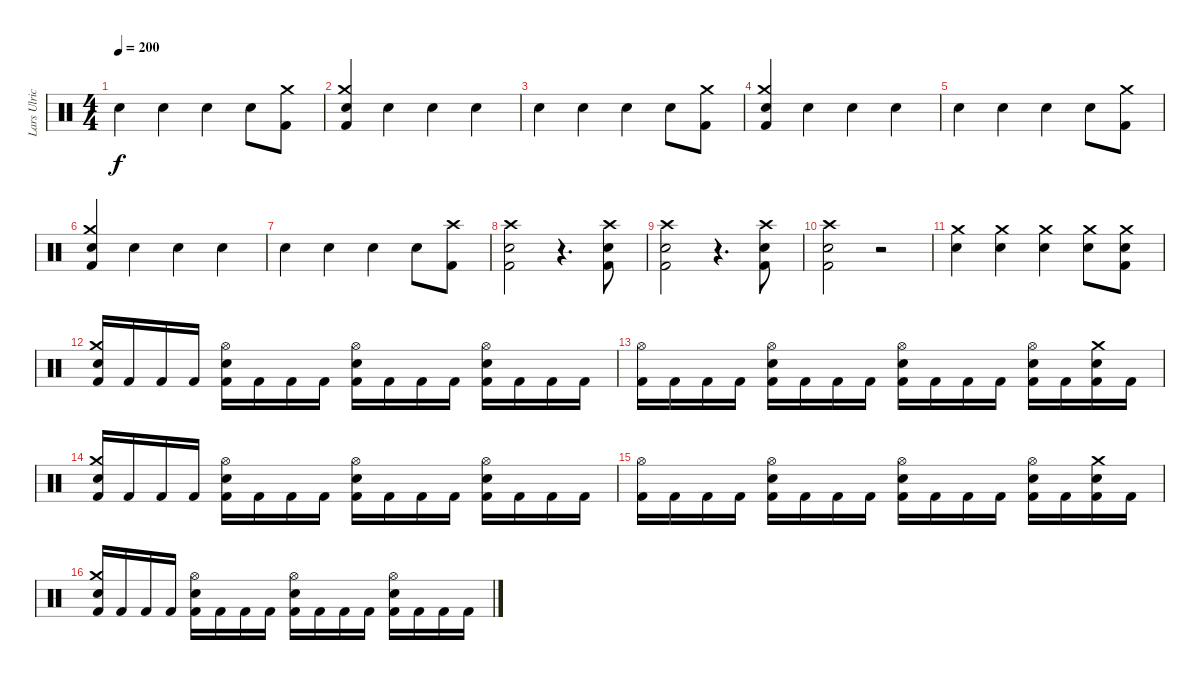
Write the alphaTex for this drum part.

\track ("Lars Ulrich" "Lars Ulric") {instrument percussion}
\staff {score}
\articulation defaults
\ts (4 4)
\tempo 200
\clef neutral
\ks c "Electric Snare (hit)".4{dy f} "Electric Snare (hit)".4 "Electric Snare (hit)".4 "Electric Snare (hit)".8
("Crash medium (hit)" "Kick (hit) 2").8 |
("Crash medium (hit)" "Electric Snare (hit)" "Kick (hit) 2").4 "Electric Snare (hit)".4 "Electric Snare (hit)".4 "Electric Snare (hit)".4 |
"Electric Snare (hit)".4 "Electric Snare (hit)".4 "Electric Snare (hit)".4 "Electric Snare (hit)".8 ("Crash medium (hit)" "Kick (hit) 2").8 |
("Crash medium (hit)" "Electric Snare (hit)" "Kick (hit) 2").4 "Electric Snare (hit)".4 "Electric Snare (hit)".4 "Electric Snare (hit)".4 |
"Electric Snare (hit)".4 "Electric Snare (hit)".4 "Electric Snare (hit)".4 "Electric Snare (hit)".8 ("Crash medium (hit)" "Kick (hit) 2").8 |
("Crash medium (hit)" "Electric Snare (hit)" "Kick (hit) 2").4 "Electric Snare (hit)".4 "Electric Snare (hit)".4 "Electric Snare (hit)".4 |
"Electric Snare (hit)".4 "Electric Snare (hit)".4 "Electric Snare (hit)".4 "Electric Snare (hit)".8 ("Crash high (hit)" "Kick (hit) 2").8 |
("Crash high (hit)" "Electric Snare (hit)" "Kick (hit) 2").2 r.4{d} ("Crash high (hit)" "Electric Snare (hit)" "Kick (hit) 2").8 |
("Crash high (hit)" "Electric Snare (hit)" "Kick (hit) 2").2 r.4{d} ("Crash high (hit)" "Electric Snare (hit)" "Kick (hit) 2").8 |
("Crash high (hit)" "Electric Snare (hit)" "Kick (hit) 2").2 r.2 |
("Crash medium (hit)" "Electric Snare (hit)").4 ("Crash medium (hit)" "Electric Snare (hit)").4 ("Crash medium (hit)" "Electric Snare (hit)").4 ("Crash medium (hit)" "Electric Snare (hit)").8 ("Crash medium (hit)" "Electric Snare (hit)" "Kick (hit) 2").8 |
("Crash medium (hit)" "Electric Snare (hit)" "Kick (hit) 2").16 "Kick (hit) 2".16 "Kick (hit) 2".16 "Kick (hit) 2".16 ("Hi-Hat (open)" "Electric Snare (hit)" "Kick (hit) 2").16 "Kick (hit) 2".16 "Kick (hit) 2".16 "Kick (hit) 2".16 ("Hi-Hat (open)" "Electric Snare (hit)" "Kick (hit) 2").16 "Kick (hit) 2".16 "Kick (hit) 2".16 "Kick (hit) 2".16 ("Hi-Hat (open)" "Electric Snare (hit)" "Kick (hit) 2").16 "Kick (hit) 2".16 "Kick (hit) 2".16 "Kick (hit) 2".16 |
("Hi-Hat (open)" "Kick (hit) 2").16 "Kick (hit) 2".16 "Kick (hit) 2".16 "Kick (hit) 2".16 ("Hi-Hat (open)" "Electric Snare (hit)" "Kick (hit) 2").16 "Kick (hit) 2".16 "Kick (hit) 2".16 "Kick (hit) 2".16 ("Hi-Hat (open)" "Electric Snare (hit)" "Kick (hit) 2").16 "Kick (hit) 2".16 "Kick (hit) 2".16 "Kick (hit) 2".16 ("Hi-Hat (open)" "Electric Snare (hit)" "Kick (hit) 2").16 "Kick (hit) 2".16 ("Crash medium (hit)" "Electric Snare (hit)" "Kick (hit) 2").16 "Kick (hit) 2".16 |
("Crash medium (hit)" "Electric Snare (hit)" "Kick (hit) 2").16 "Kick (hit) 2".16 "Kick (hit) 2".16 "Kick (hit) 2".16 ("Hi-Hat (open)" "Electric Snare (hit)" "Kick (hit) 2").16 "Kick (hit) 2".16 "Kick (hit) 2".16 "Kick (hit) 2".16 ("Hi-Hat (open)" "Electric Snare (hit)" "Kick (hit) 2").16 "Kick (hit) 2".16 "Kick (hit) 2".16 "Kick (hit) 2".16 ("Hi-Hat (open)" "Electric Snare (hit)" "Kick (hit) 2").16 "Kick (hit) 2".16 "Kick (hit) 2".16 "Kick (hit) 2".16 |
("Hi-Hat (open)" "Kick (hit) 2").16 "Kick (hit) 2".16 "Kick (hit) 2".16 "Kick (hit) 2".16 ("Hi-Hat (open)" "Electric Snare (hit)" "Kick (hit) 2").16 "Kick (hit) 2".16 "Kick (hit) 2".16 "Kick (hit) 2".16 ("Hi-Hat (open)" "Electric Snare (hit)" "Kick (hit) 2").16 "Kick (hit) 2".16 "Kick (hit) 2".16 "Kick (hit) 2".16 ("Hi-Hat (open)" "Electric Snare (hit)" "Kick (hit) 2").16 "Kick (hit) 2".16 ("Crash medium (hit)" "Electric Snare (hit)" "Kick (hit) 2").16 "Kick (hit) 2".16 |
("Crash medium (hit)" "Electric Snare (hit)" "Kick (hit) 2").16 "Kick (hit) 2".16 "Kick (hit) 2".16 "Kick (hit) 2".16 ("Hi-Hat (open)" "Electric Snare (hit)" "Kick (hit) 2").16 "Kick (hit) 2".16 "Kick (hit) 2".16 "Kick (hit) 2".16 ("Hi-Hat (open)" "Electric Snare (hit)" "Kick (hit) 2").16 "Kick (hit) 2".16 "Kick (hit) 2".16 "Kick (hit) 2".16 ("Hi-Hat (open)" "Electric Snare (hit)" "Kick (hit) 2").16 "Kick (hit) 2".16 "Kick (hit) 2".16 "Kick (hit) 2".16
